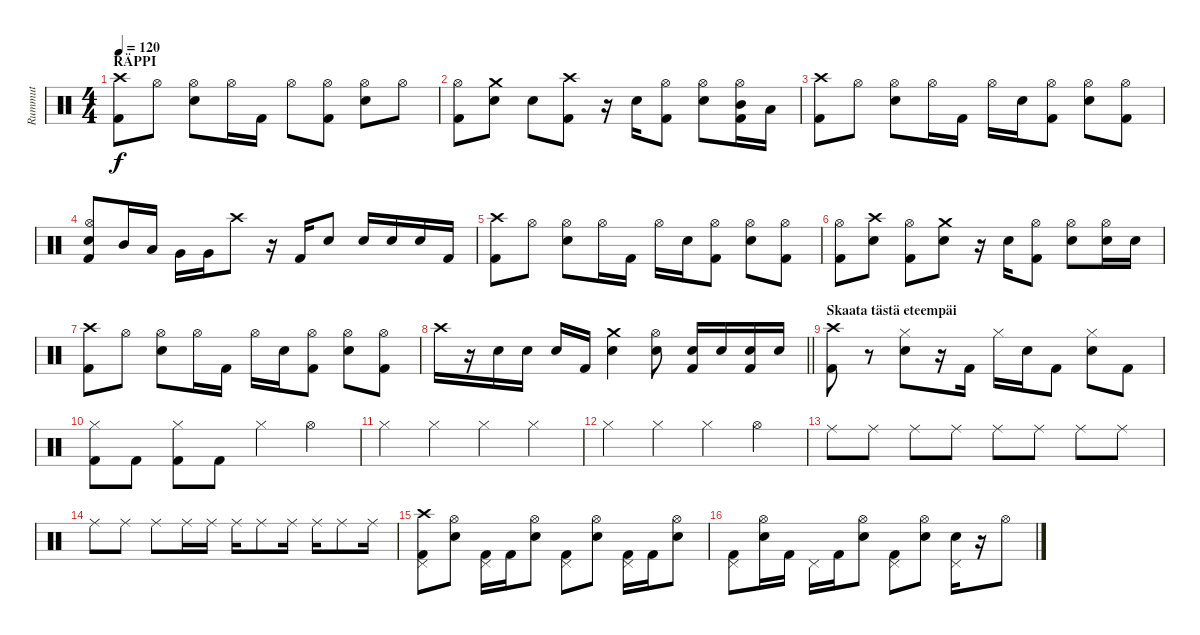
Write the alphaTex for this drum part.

\track ("Rummut" "Rummut") {instrument percussion}
\staff {score}
\articulation defaults
\ts (4 4)
\section ("" "RÄPPI")
\tempo 120
\clef neutral
\ks c
("Crash high (hit)" "Kick (hit) 2").8{dy f} "Hi-Hat (open)".8 ("Hi-Hat (open)" "Snare (hit) 2").8 "Hi-Hat (open)".16 "Kick (hit) 2".16 "Hi-Hat (open)".8 ("Hi-Hat (open)" "Kick (hit) 2").8 ("Hi-Hat (open)" "Snare (hit) 2").8 "Hi-Hat (open)".8 |
("Hi-Hat (open)" "Kick (hit) 2").8 ("Crash medium (hit)" "Snare (hit) 2").8 "Snare (hit) 2".8 ("Crash high (hit)" "Kick (hit) 2").8 r.16 "Snare (hit) 2".16 ("Hi-Hat (open)" "Kick (hit) 2").8 ("Hi-Hat (open)" "Snare (hit) 2").8 ("Hi-Hat (open)" "Mid Tom (hit)" "Kick (hit) 2").16 "Low Tom (hit)".16 |
("Crash high (hit)" "Kick (hit) 2").8 "Hi-Hat (open)".8 ("Hi-Hat (open)" "Snare (hit) 2").8 "Hi-Hat (open)".16 "Kick (hit) 2".16 "Hi-Hat (open)".16 "Snare (hit) 2".16 ("Hi-Hat (open)" "Kick (hit) 2").8 ("Hi-Hat (open)" "Snare (hit) 2").8 ("Hi-Hat (open)" "Kick (hit) 2").8 |
("Hi-Hat (open)" "Snare (hit) 2" "Kick (hit) 2").8 "Mid Tom (hit)".16 "Low Tom (hit)".16 "Very Low Tom (hit)".16 "Very Low Tom (hit)".16 "Crash high (hit)".8 r.16 "Kick (hit) 2".16 "Snare (hit) 2".8 "Snare (hit) 2".16 "Snare (hit) 2".16 "Snare (hit) 2".16 "Kick (hit) 2".16 |
("Crash high (hit)" "Kick (hit) 2").8 "Hi-Hat (open)".8 ("Hi-Hat (open)" "Snare (hit) 2").8 "Hi-Hat (open)".16 "Kick (hit) 2".16 "Hi-Hat (open)".16 "Snare (hit) 2".16 ("Hi-Hat (open)" "Kick (hit) 2").8 ("Hi-Hat (open)" "Snare (hit) 2").8 ("Hi-Hat (open)" "Kick (hit) 2").8 |
("Hi-Hat (open)" "Kick (hit) 2").8 ("Crash high (hit)" "Snare (hit) 2").8 ("Hi-Hat (open)" "Kick (hit) 2").8 ("Crash medium (hit)" "Snare (hit) 2").8 r.16 "Snare (hit) 2".16 ("Hi-Hat (open)" "Kick (hit) 2").8 ("Hi-Hat (open)" "Snare (hit) 2").8 ("Hi-Hat (open)" "Snare (hit) 2").16 "Snare (hit) 2".16 |
("Crash high (hit)" "Kick (hit) 2").8 "Hi-Hat (open)".8 ("Hi-Hat (open)" "Snare (hit) 2").8 "Hi-Hat (open)".16 "Kick (hit) 2".16 "Hi-Hat (open)".16 "Snare (hit) 2".16 ("Hi-Hat (open)" "Kick (hit) 2").8 ("Hi-Hat (open)" "Snare (hit) 2").8 ("Hi-Hat (open)" "Kick (hit) 2").8 |
\barLineRight lightlight "Crash high (hit)".16
r.16 "Snare (hit) 2".16 "Snare (hit) 2".16 "Snare (hit) 2".16 "Kick (hit) 2".16 ("Crash medium (hit)" "Snare (hit) 2").4 ("Hi-Hat (open)" "Snare (hit) 2").8 ("Snare (hit) 2" "Kick (hit) 2").16 "Snare (hit) 2".16 ("Snare (hit) 2" "Kick (hit) 2").16 "Snare (hit) 2".16 |
\section ("" "Skaata tästä eteempäi")
("Crash high (hit)" "Kick (hit) 2").8 r.8 ("Hi-Hat (closed)" "Snare (hit) 2").8 r.16 "Kick (hit) 2".16 "Hi-Hat (closed)".16 "Snare (hit) 2".16 "Kick (hit) 2".8 ("Hi-Hat (closed)" "Snare (hit) 2").8 "Kick (hit) 2".8 |
("Hi-Hat (closed)" "Kick (hit) 2").8 "Kick (hit) 2".8 ("Hi-Hat (closed)" "Kick (hit) 2").8 "Kick (hit) 2".8 "Hi-Hat (closed)".4 "Hi-Hat (open)".4 |
"Hi-Hat (closed)".4 "Hi-Hat (closed)".4 "Hi-Hat (closed)".4 "Hi-Hat (closed)".4 |
"Hi-Hat (closed)".4 "Hi-Hat (closed)".4 "Hi-Hat (closed)".4 "Hi-Hat (open)".4 |
"Ride (middle)".8 "Ride (middle)".8 "Ride (middle)".8 "Ride (middle)".8 "Ride (middle)".8 "Ride (middle)".8 "Ride (middle)".8 "Ride (middle)".8 |
"Ride (middle)".8 "Ride (middle)".8 "Ride (middle)".8 "Ride (middle)".16 "Ride (middle)".16 "Ride (middle)".16 "Ride (middle)".8 "Ride (middle)".16 "Ride (middle)".16 "Ride (middle)".8 "Ride (middle)".16 |
("Crash high (hit)" "Pedal Hi-Hat (hit)" "Kick (hit) 2").8 ("Hi-Hat (open)" "Snare (hit) 2").8 ("Pedal Hi-Hat (hit)" "Kick (hit) 2").16 "Kick (hit) 2".16 ("Hi-Hat (open)" "Snare (hit) 2").8 ("Pedal Hi-Hat (hit)" "Kick (hit) 2").8 ("Hi-Hat (open)" "Snare (hit) 2").8 ("Pedal Hi-Hat (hit)" "Kick (hit) 2").16 "Kick (hit) 2".16 ("Hi-Hat (open)" "Snare (hit) 2").8 |
("Pedal Hi-Hat (hit)" "Kick (hit) 2").8 ("Hi-Hat (open)" "Snare (hit) 2").16 "Kick (hit) 2".16 "Pedal Hi-Hat (hit)".16 "Kick (hit) 2".16 ("Hi-Hat (open)" "Snare (hit) 2").8 ("Pedal Hi-Hat (hit)" "Kick (hit) 2").8 ("Hi-Hat (open)" "Snare (hit) 2").8 ("Pedal Hi-Hat (hit)" "Snare (hit) 2").16 r.16 "Hi-Hat (open)".8
